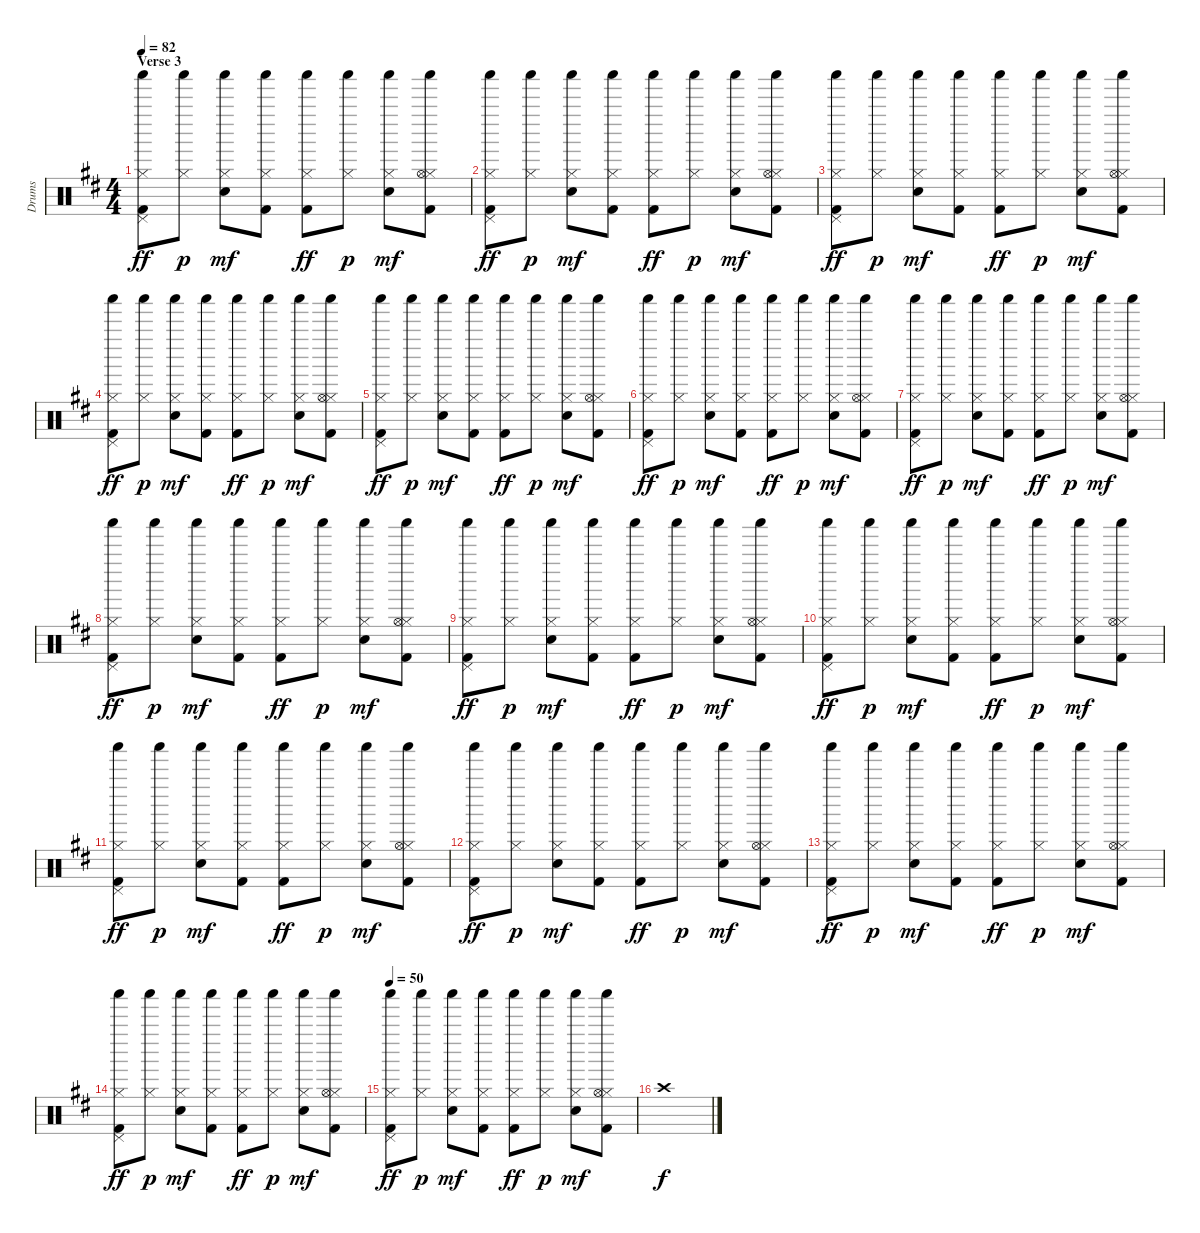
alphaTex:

\track ("Drums" "Drums") {instrument percussion}
\staff {score}
\articulation defaults
\ts (4 4)
\section ("" "Verse 3")
\tempo 82
\clef neutral
\ks d
("Hi-Hat (closed)" "Shaker (hit)" "Pedal Hi-Hat (hit)" "Kick (hit) 2").8{dy ff} ("Hi-Hat (closed)" "Shaker (hit)").8{dy p} ("Hi-Hat (closed)" "Electric Snare (hit)" "Shaker (hit)").8{dy mf} ("Hi-Hat (closed)" "Shaker (hit)" "Kick (hit) 2").8 ("Hi-Hat (closed)" "Shaker (hit)" "Kick (hit) 2").8{dy ff} ("Hi-Hat (closed)" "Shaker (hit)").8{dy p} ("Hi-Hat (closed)" "Electric Snare (hit)" "Shaker (hit)").8{dy mf} ("Hi-Hat (closed)" "Shaker (hit)" "Hi-Hat (open)" "Kick (hit) 2").8 |
("Hi-Hat (closed)" "Shaker (hit)" "Pedal Hi-Hat (hit)" "Kick (hit) 2").8{dy ff} ("Hi-Hat (closed)" "Shaker (hit)").8{dy p} ("Hi-Hat (closed)" "Electric Snare (hit)" "Shaker (hit)").8{dy mf} ("Hi-Hat (closed)" "Shaker (hit)" "Kick (hit) 2").8 ("Hi-Hat (closed)" "Shaker (hit)" "Kick (hit) 2").8{dy ff} ("Hi-Hat (closed)" "Shaker (hit)").8{dy p} ("Hi-Hat (closed)" "Electric Snare (hit)" "Shaker (hit)").8{dy mf} ("Hi-Hat (closed)" "Shaker (hit)" "Hi-Hat (open)" "Kick (hit) 2").8 |
("Hi-Hat (closed)" "Shaker (hit)" "Pedal Hi-Hat (hit)" "Kick (hit) 2").8{dy ff} ("Hi-Hat (closed)" "Shaker (hit)").8{dy p} ("Hi-Hat (closed)" "Electric Snare (hit)" "Shaker (hit)").8{dy mf} ("Hi-Hat (closed)" "Shaker (hit)" "Kick (hit) 2").8 ("Hi-Hat (closed)" "Shaker (hit)" "Kick (hit) 2").8{dy ff} ("Hi-Hat (closed)" "Shaker (hit)").8{dy p} ("Hi-Hat (closed)" "Electric Snare (hit)" "Shaker (hit)").8{dy mf} ("Hi-Hat (closed)" "Shaker (hit)" "Hi-Hat (open)" "Kick (hit) 2").8 |
("Hi-Hat (closed)" "Shaker (hit)" "Pedal Hi-Hat (hit)" "Kick (hit) 2").8{dy ff} ("Hi-Hat (closed)" "Shaker (hit)").8{dy p} ("Hi-Hat (closed)" "Electric Snare (hit)" "Shaker (hit)").8{dy mf} ("Hi-Hat (closed)" "Shaker (hit)" "Kick (hit) 2").8 ("Hi-Hat (closed)" "Shaker (hit)" "Kick (hit) 2").8{dy ff} ("Hi-Hat (closed)" "Shaker (hit)").8{dy p} ("Hi-Hat (closed)" "Electric Snare (hit)" "Shaker (hit)").8{dy mf} ("Hi-Hat (closed)" "Shaker (hit)" "Hi-Hat (open)" "Kick (hit) 2").8 |
("Hi-Hat (closed)" "Shaker (hit)" "Pedal Hi-Hat (hit)" "Kick (hit) 2").8{dy ff} ("Hi-Hat (closed)" "Shaker (hit)").8{dy p} ("Hi-Hat (closed)" "Electric Snare (hit)" "Shaker (hit)").8{dy mf} ("Hi-Hat (closed)" "Shaker (hit)" "Kick (hit) 2").8 ("Hi-Hat (closed)" "Shaker (hit)" "Kick (hit) 2").8{dy ff} ("Hi-Hat (closed)" "Shaker (hit)").8{dy p} ("Hi-Hat (closed)" "Electric Snare (hit)" "Shaker (hit)").8{dy mf} ("Hi-Hat (closed)" "Shaker (hit)" "Hi-Hat (open)" "Kick (hit) 2").8 |
("Hi-Hat (closed)" "Shaker (hit)" "Pedal Hi-Hat (hit)" "Kick (hit) 2").8{dy ff} ("Hi-Hat (closed)" "Shaker (hit)").8{dy p} ("Hi-Hat (closed)" "Electric Snare (hit)" "Shaker (hit)").8{dy mf} ("Hi-Hat (closed)" "Shaker (hit)" "Kick (hit) 2").8 ("Hi-Hat (closed)" "Shaker (hit)" "Kick (hit) 2").8{dy ff} ("Hi-Hat (closed)" "Shaker (hit)").8{dy p} ("Hi-Hat (closed)" "Electric Snare (hit)" "Shaker (hit)").8{dy mf} ("Hi-Hat (closed)" "Shaker (hit)" "Hi-Hat (open)" "Kick (hit) 2").8 |
("Hi-Hat (closed)" "Shaker (hit)" "Pedal Hi-Hat (hit)" "Kick (hit) 2").8{dy ff} ("Hi-Hat (closed)" "Shaker (hit)").8{dy p} ("Hi-Hat (closed)" "Electric Snare (hit)" "Shaker (hit)").8{dy mf} ("Hi-Hat (closed)" "Shaker (hit)" "Kick (hit) 2").8 ("Hi-Hat (closed)" "Shaker (hit)" "Kick (hit) 2").8{dy ff} ("Hi-Hat (closed)" "Shaker (hit)").8{dy p} ("Hi-Hat (closed)" "Electric Snare (hit)" "Shaker (hit)").8{dy mf} ("Hi-Hat (closed)" "Shaker (hit)" "Hi-Hat (open)" "Kick (hit) 2").8 |
("Hi-Hat (closed)" "Shaker (hit)" "Pedal Hi-Hat (hit)" "Kick (hit) 2").8{dy ff} ("Hi-Hat (closed)" "Shaker (hit)").8{dy p} ("Hi-Hat (closed)" "Electric Snare (hit)" "Shaker (hit)").8{dy mf} ("Hi-Hat (closed)" "Shaker (hit)" "Kick (hit) 2").8 ("Hi-Hat (closed)" "Shaker (hit)" "Kick (hit) 2").8{dy ff} ("Hi-Hat (closed)" "Shaker (hit)").8{dy p} ("Hi-Hat (closed)" "Electric Snare (hit)" "Shaker (hit)").8{dy mf} ("Hi-Hat (closed)" "Shaker (hit)" "Hi-Hat (open)" "Kick (hit) 2").8 |
("Hi-Hat (closed)" "Shaker (hit)" "Pedal Hi-Hat (hit)" "Kick (hit) 2").8{dy ff} ("Hi-Hat (closed)" "Shaker (hit)").8{dy p} ("Hi-Hat (closed)" "Electric Snare (hit)" "Shaker (hit)").8{dy mf} ("Hi-Hat (closed)" "Shaker (hit)" "Kick (hit) 2").8 ("Hi-Hat (closed)" "Shaker (hit)" "Kick (hit) 2").8{dy ff} ("Hi-Hat (closed)" "Shaker (hit)").8{dy p} ("Hi-Hat (closed)" "Electric Snare (hit)" "Shaker (hit)").8{dy mf} ("Hi-Hat (closed)" "Shaker (hit)" "Hi-Hat (open)" "Kick (hit) 2").8 |
("Hi-Hat (closed)" "Shaker (hit)" "Pedal Hi-Hat (hit)" "Kick (hit) 2").8{dy ff} ("Hi-Hat (closed)" "Shaker (hit)").8{dy p} ("Hi-Hat (closed)" "Electric Snare (hit)" "Shaker (hit)").8{dy mf} ("Hi-Hat (closed)" "Shaker (hit)" "Kick (hit) 2").8 ("Hi-Hat (closed)" "Shaker (hit)" "Kick (hit) 2").8{dy ff} ("Hi-Hat (closed)" "Shaker (hit)").8{dy p} ("Hi-Hat (closed)" "Electric Snare (hit)" "Shaker (hit)").8{dy mf} ("Hi-Hat (closed)" "Shaker (hit)" "Hi-Hat (open)" "Kick (hit) 2").8 |
("Hi-Hat (closed)" "Shaker (hit)" "Pedal Hi-Hat (hit)" "Kick (hit) 2").8{dy ff} ("Hi-Hat (closed)" "Shaker (hit)").8{dy p} ("Hi-Hat (closed)" "Electric Snare (hit)" "Shaker (hit)").8{dy mf} ("Hi-Hat (closed)" "Shaker (hit)" "Kick (hit) 2").8 ("Hi-Hat (closed)" "Shaker (hit)" "Kick (hit) 2").8{dy ff} ("Hi-Hat (closed)" "Shaker (hit)").8{dy p} ("Hi-Hat (closed)" "Electric Snare (hit)" "Shaker (hit)").8{dy mf} ("Hi-Hat (closed)" "Shaker (hit)" "Hi-Hat (open)" "Kick (hit) 2").8 |
("Hi-Hat (closed)" "Shaker (hit)" "Pedal Hi-Hat (hit)" "Kick (hit) 2").8{dy ff} ("Hi-Hat (closed)" "Shaker (hit)").8{dy p} ("Hi-Hat (closed)" "Electric Snare (hit)" "Shaker (hit)").8{dy mf} ("Hi-Hat (closed)" "Shaker (hit)" "Kick (hit) 2").8 ("Hi-Hat (closed)" "Shaker (hit)" "Kick (hit) 2").8{dy ff} ("Hi-Hat (closed)" "Shaker (hit)").8{dy p} ("Hi-Hat (closed)" "Electric Snare (hit)" "Shaker (hit)").8{dy mf} ("Hi-Hat (closed)" "Shaker (hit)" "Hi-Hat (open)" "Kick (hit) 2").8 |
("Hi-Hat (closed)" "Shaker (hit)" "Pedal Hi-Hat (hit)" "Kick (hit) 2").8{dy ff} ("Hi-Hat (closed)" "Shaker (hit)").8{dy p} ("Hi-Hat (closed)" "Electric Snare (hit)" "Shaker (hit)").8{dy mf} ("Hi-Hat (closed)" "Shaker (hit)" "Kick (hit) 2").8 ("Hi-Hat (closed)" "Shaker (hit)" "Kick (hit) 2").8{dy ff} ("Hi-Hat (closed)" "Shaker (hit)").8{dy p} ("Hi-Hat (closed)" "Electric Snare (hit)" "Shaker (hit)").8{dy mf} ("Hi-Hat (closed)" "Shaker (hit)" "Hi-Hat (open)" "Kick (hit) 2").8 |
("Hi-Hat (closed)" "Shaker (hit)" "Pedal Hi-Hat (hit)" "Kick (hit) 2").8{dy ff} ("Hi-Hat (closed)" "Shaker (hit)").8{dy p} ("Hi-Hat (closed)" "Electric Snare (hit)" "Shaker (hit)").8{dy mf} ("Hi-Hat (closed)" "Shaker (hit)" "Kick (hit) 2").8 ("Hi-Hat (closed)" "Shaker (hit)" "Kick (hit) 2").8{dy ff} ("Hi-Hat (closed)" "Shaker (hit)").8{dy p} ("Hi-Hat (closed)" "Electric Snare (hit)" "Shaker (hit)").8{dy mf} ("Hi-Hat (closed)" "Shaker (hit)" "Hi-Hat (open)" "Kick (hit) 2").8 |
\tempo 50
("Hi-Hat (closed)" "Shaker (hit)" "Pedal Hi-Hat (hit)" "Kick (hit) 2").8{dy ff} ("Hi-Hat (closed)" "Shaker (hit)").8{dy p} ("Hi-Hat (closed)" "Electric Snare (hit)" "Shaker (hit)").8{dy mf} ("Hi-Hat (closed)" "Shaker (hit)" "Kick (hit) 2").8 ("Hi-Hat (closed)" "Shaker (hit)" "Kick (hit) 2").8{dy ff} ("Hi-Hat (closed)" "Shaker (hit)").8{dy p} ("Hi-Hat (closed)" "Electric Snare (hit)" "Shaker (hit)").8{dy mf} ("Hi-Hat (closed)" "Shaker (hit)" "Hi-Hat (open)" "Kick (hit) 2").8 |
"Crash high (hit)".1{dy f}
